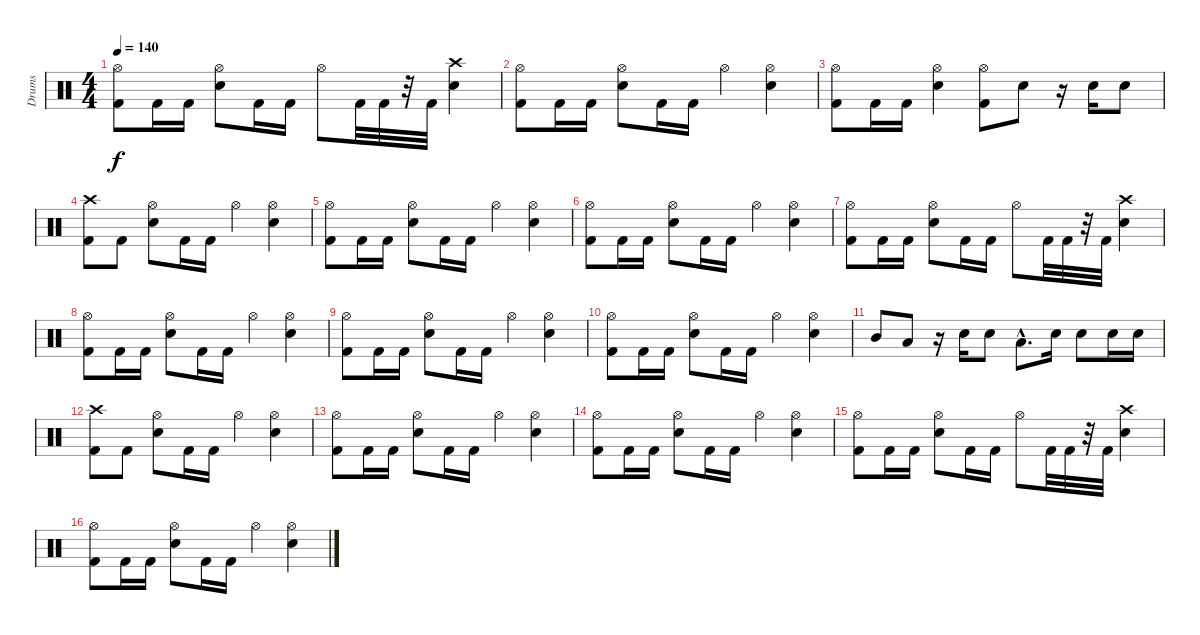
\track ("Drums" "Drums") {instrument percussion}
\staff {score}
\articulation defaults
\ts (4 4)
\tempo 140
\clef neutral
\ks c
("Kick (hit) 2" "Hi-Hat (open)").8{dy f} "Kick (hit) 2".16 "Kick (hit) 2".16 ("Snare (hit) 2" "Hi-Hat (open)").8 "Kick (hit) 2".16 "Kick (hit) 2".16 "Hi-Hat (open)".8 "Kick (hit) 2".32 "Kick (hit) 2".32 r.32 "Kick (hit) 2".32 ("Snare (hit) 2" "Crash high (hit)").4 |
("Hi-Hat (open)" "Kick (hit) 2").8 "Kick (hit) 2".16 "Kick (hit) 2".16 ("Snare (hit) 2" "Hi-Hat (open)").8 "Kick (hit) 2".16 "Kick (hit) 2".16 "Hi-Hat (open)".4 ("Snare (hit) 2" "Hi-Hat (open)").4 |
("Kick (hit) 2" "Hi-Hat (open)").8 "Kick (hit) 2".16 "Kick (hit) 2".16 ("Snare (hit) 2" "Hi-Hat (open)").4 ("Hi-Hat (open)" "Kick (hit) 2").8 "Snare (hit) 2".8 r.16 "Snare (hit) 2".16 "Snare (hit) 2".8 |
("Crash high (hit)" "Kick (hit) 2").8 "Kick (hit) 2".8 ("Hi-Hat (open)" "Snare (hit) 2").8 "Kick (hit) 2".16 "Kick (hit) 2".16 "Hi-Hat (open)".4 ("Hi-Hat (open)" "Snare (hit) 2").4 |
("Kick (hit) 2" "Hi-Hat (open)").8 "Kick (hit) 2".16 "Kick (hit) 2".16 ("Hi-Hat (open)" "Snare (hit) 2").8 "Kick (hit) 2".16 "Kick (hit) 2".16 "Hi-Hat (open)".4 ("Snare (hit) 2" "Hi-Hat (open)").4 |
("Kick (hit) 2" "Hi-Hat (open)").8 "Kick (hit) 2".16 "Kick (hit) 2".16 ("Snare (hit) 2" "Hi-Hat (open)").8 "Kick (hit) 2".16 "Kick (hit) 2".16 "Hi-Hat (open)".4 ("Snare (hit) 2" "Hi-Hat (open)").4 |
("Hi-Hat (open)" "Kick (hit) 2").8 "Kick (hit) 2".16 "Kick (hit) 2".16 ("Hi-Hat (open)" "Snare (hit) 2").8 "Kick (hit) 2".16 "Kick (hit) 2".16 "Hi-Hat (open)".8 "Kick (hit) 2".32 "Kick (hit) 2".32 r.32 "Kick (hit) 2".32 ("Crash high (hit)" "Snare (hit) 2").4 |
("Kick (hit) 2" "Hi-Hat (open)").8 "Kick (hit) 2".16 "Kick (hit) 2".16 ("Hi-Hat (open)" "Snare (hit) 2").8 "Kick (hit) 2".16 "Kick (hit) 2".16 "Hi-Hat (open)".4 ("Snare (hit) 2" "Hi-Hat (open)").4 |
("Hi-Hat (open)" "Kick (hit) 2").8 "Kick (hit) 2".16 "Kick (hit) 2".16 ("Hi-Hat (open)" "Snare (hit) 2").8 "Kick (hit) 2".16 "Kick (hit) 2".16 "Hi-Hat (open)".4 ("Hi-Hat (open)" "Snare (hit) 2").4 |
("Hi-Hat (open)" "Kick (hit) 2").8 "Kick (hit) 2".16 "Kick (hit) 2".16 ("Hi-Hat (open)" "Snare (hit) 2").8 "Kick (hit) 2".16 "Kick (hit) 2".16 "Hi-Hat (open)".4 ("Snare (hit) 2" "Hi-Hat (open)").4 |
"Mid Tom (hit)".8 "Low Tom (hit)".8 r.16 "Snare (hit) 2".16 "Snare (hit) 2".8 "Low Tom (hit)"{hac}.8{d} "Snare (hit) 2".16 "Snare (hit) 2".8 "Snare (hit) 2".16 "Snare (hit) 2".16 |
("Kick (hit) 2" "Crash high (hit)").8 "Kick (hit) 2".8 ("Snare (hit) 2" "Hi-Hat (open)").8 "Kick (hit) 2".16 "Kick (hit) 2".16 "Hi-Hat (open)".4 ("Hi-Hat (open)" "Snare (hit) 2").4 |
("Hi-Hat (open)" "Kick (hit) 2").8 "Kick (hit) 2".16 "Kick (hit) 2".16 ("Hi-Hat (open)" "Snare (hit) 2").8 "Kick (hit) 2".16 "Kick (hit) 2".16 "Hi-Hat (open)".4 ("Hi-Hat (open)" "Snare (hit) 2").4 |
("Hi-Hat (open)" "Kick (hit) 2").8 "Kick (hit) 2".16 "Kick (hit) 2".16 ("Snare (hit) 2" "Hi-Hat (open)").8 "Kick (hit) 2".16 "Kick (hit) 2".16 "Hi-Hat (open)".4 ("Snare (hit) 2" "Hi-Hat (open)").4 |
("Kick (hit) 2" "Hi-Hat (open)").8 "Kick (hit) 2".16 "Kick (hit) 2".16 ("Hi-Hat (open)" "Snare (hit) 2").8 "Kick (hit) 2".16 "Kick (hit) 2".16 "Hi-Hat (open)".8 "Kick (hit) 2".32 "Kick (hit) 2".32 r.32 "Kick (hit) 2".32 ("Crash high (hit)" "Snare (hit) 2").4 |
("Hi-Hat (open)" "Kick (hit) 2").8 "Kick (hit) 2".16 "Kick (hit) 2".16 ("Snare (hit) 2" "Hi-Hat (open)").8 "Kick (hit) 2".16 "Kick (hit) 2".16 "Hi-Hat (open)".4 ("Snare (hit) 2" "Hi-Hat (open)").4
